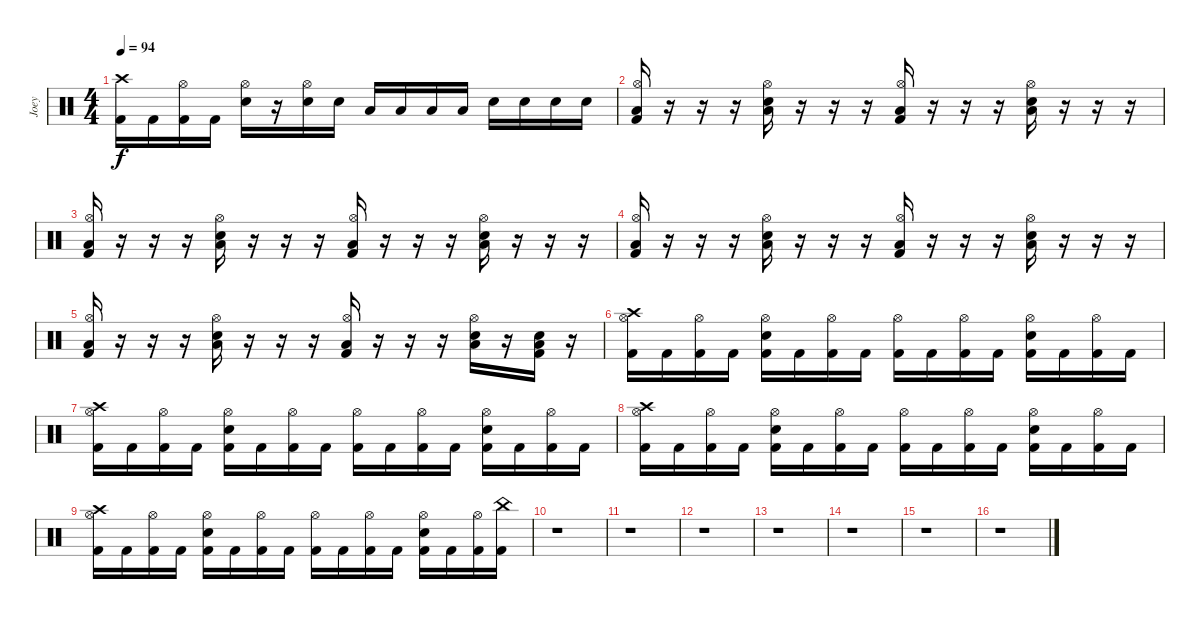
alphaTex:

\track ("Joey" "Joey") {instrument percussion}
\staff {score}
\articulation defaults
\ts (4 4)
\tempo 94
\clef neutral
\ks c
("Crash high (hit)" "Kick (hit) 2").16{dy f} "Kick (hit) 2".16 ("Hi-Hat (open)" "Kick (hit) 2").16 "Kick (hit) 2".16 ("Hi-Hat (open)" "Electric Snare (hit)").16 r.16 ("Hi-Hat (open)" "Electric Snare (hit)").16 "Electric Snare (hit)".16 "Low Tom (hit)".16 "Low Tom (hit)".16 "Low Tom (hit)".16 "Low Tom (hit)".16 "Electric Snare (hit)".16 "Electric Snare (hit)".16 "Electric Snare (hit)".16 "Electric Snare (hit)".16 |
("Hi-Hat (open)" "Low Floor Tom (hit)" "Kick (hit) 2").16 r.16 r.16 r.16 ("Hi-Hat (open)" "Low Floor Tom (hit)" "Electric Snare (hit)").16 r.16 r.16 r.16 ("Hi-Hat (open)" "Low Floor Tom (hit)" "Kick (hit) 2").16 r.16 r.16 r.16 ("Hi-Hat (open)" "Low Floor Tom (hit)" "Electric Snare (hit)").16 r.16 r.16 r.16 |
("Hi-Hat (open)" "Low Floor Tom (hit)" "Kick (hit) 2").16 r.16 r.16 r.16 ("Hi-Hat (open)" "Low Floor Tom (hit)" "Electric Snare (hit)").16 r.16 r.16 r.16 ("Hi-Hat (open)" "Low Floor Tom (hit)" "Kick (hit) 2").16 r.16 r.16 r.16 ("Hi-Hat (open)" "Low Floor Tom (hit)" "Electric Snare (hit)").16 r.16 r.16 r.16 |
("Hi-Hat (open)" "Low Floor Tom (hit)" "Kick (hit) 2").16 r.16 r.16 r.16 ("Hi-Hat (open)" "Low Floor Tom (hit)" "Electric Snare (hit)").16 r.16 r.16 r.16 ("Hi-Hat (open)" "Low Floor Tom (hit)" "Kick (hit) 2").16 r.16 r.16 r.16 ("Hi-Hat (open)" "Low Floor Tom (hit)" "Electric Snare (hit)").16 r.16 r.16 r.16 |
("Hi-Hat (open)" "Low Floor Tom (hit)" "Kick (hit) 2").16 r.16 r.16 r.16 ("Hi-Hat (open)" "Low Floor Tom (hit)" "Electric Snare (hit)").16 r.16 r.16 r.16 ("Hi-Hat (open)" "Low Floor Tom (hit)" "Kick (hit) 2").16 r.16 r.16 r.16 ("Hi-Hat (open)" "Low Floor Tom (hit)" "Electric Snare (hit)").16 r.16 ("Low Floor Tom (hit)" "Kick (hit) 2" "Electric Snare (hit)").16 r.16 |
("Crash high (hit)" "Hi-Hat (open)" "Kick (hit) 2").16 "Kick (hit) 2".16 ("Hi-Hat (open)" "Kick (hit) 2").16 "Kick (hit) 2".16 ("Hi-Hat (open)" "Electric Snare (hit)" "Kick (hit) 2").16 "Kick (hit) 2".16 ("Hi-Hat (open)" "Kick (hit) 2").16 "Kick (hit) 2".16 ("Hi-Hat (open)" "Kick (hit) 2").16 "Kick (hit) 2".16 ("Hi-Hat (open)" "Kick (hit) 2").16 "Kick (hit) 2".16 ("Hi-Hat (open)" "Electric Snare (hit)" "Kick (hit) 2").16 "Kick (hit) 2".16 ("Hi-Hat (open)" "Kick (hit) 2").16 "Kick (hit) 2".16 |
("Crash high (hit)" "Hi-Hat (open)" "Kick (hit) 2").16 "Kick (hit) 2".16 ("Hi-Hat (open)" "Kick (hit) 2").16 "Kick (hit) 2".16 ("Hi-Hat (open)" "Electric Snare (hit)" "Kick (hit) 2").16 "Kick (hit) 2".16 ("Hi-Hat (open)" "Kick (hit) 2").16 "Kick (hit) 2".16 ("Hi-Hat (open)" "Kick (hit) 2").16 "Kick (hit) 2".16 ("Hi-Hat (open)" "Kick (hit) 2").16 "Kick (hit) 2".16 ("Hi-Hat (open)" "Electric Snare (hit)" "Kick (hit) 2").16 "Kick (hit) 2".16 ("Hi-Hat (open)" "Kick (hit) 2").16 "Kick (hit) 2".16 |
("Crash high (hit)" "Hi-Hat (open)" "Kick (hit) 2").16 "Kick (hit) 2".16 ("Hi-Hat (open)" "Kick (hit) 2").16 "Kick (hit) 2".16 ("Hi-Hat (open)" "Electric Snare (hit)" "Kick (hit) 2").16 "Kick (hit) 2".16 ("Hi-Hat (open)" "Kick (hit) 2").16 "Kick (hit) 2".16 ("Hi-Hat (open)" "Kick (hit) 2").16 "Kick (hit) 2".16 ("Hi-Hat (open)" "Kick (hit) 2").16 "Kick (hit) 2".16 ("Hi-Hat (open)" "Electric Snare (hit)" "Kick (hit) 2").16 "Kick (hit) 2".16 ("Hi-Hat (open)" "Kick (hit) 2").16 "Kick (hit) 2".16 |
("Crash high (hit)" "Hi-Hat (open)" "Kick (hit) 2").16 "Kick (hit) 2".16 ("Hi-Hat (open)" "Kick (hit) 2").16 "Kick (hit) 2".16 ("Hi-Hat (open)" "Electric Snare (hit)" "Kick (hit) 2").16 "Kick (hit) 2".16 ("Hi-Hat (open)" "Kick (hit) 2").16 "Kick (hit) 2".16 ("Hi-Hat (open)" "Kick (hit) 2").16 "Kick (hit) 2".16 ("Hi-Hat (open)" "Kick (hit) 2").16 "Kick (hit) 2".16 ("Hi-Hat (open)" "Electric Snare (hit)" "Kick (hit) 2").16 "Kick (hit) 2".16 ("Hi-Hat (open)" "Kick (hit) 2").16 ("China (hit)" "Kick (hit) 2").16 |
r.1 |
r.1 |
r.1 |
r.1 |
r.1 |
r.1 |
r.1
